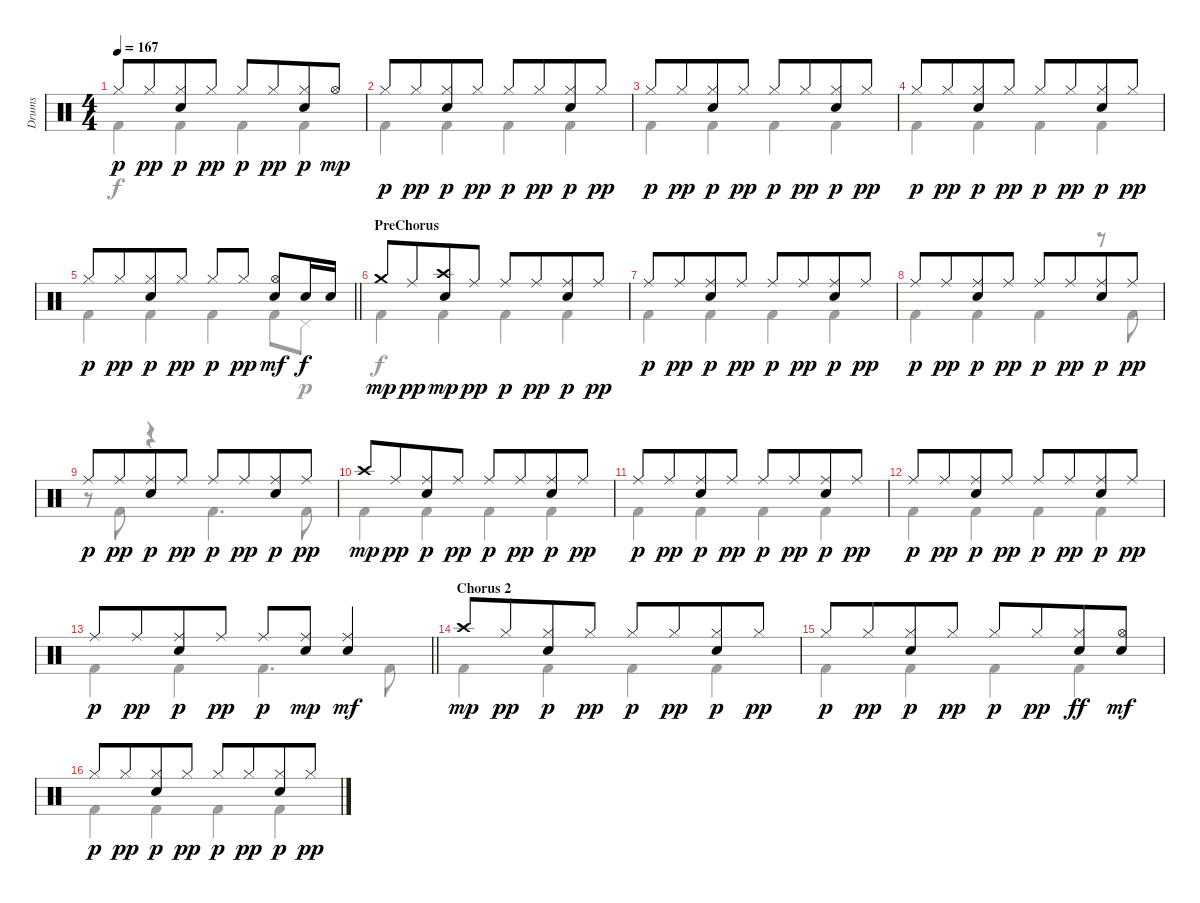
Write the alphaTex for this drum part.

\track ("Drums" "Drums") {instrument percussion}
\staff {score}
\articulation defaults
\voice
\ts (4 4)
\tempo 167
\clef neutral
\ks aminor "Hi-Hat (closed)".8{dy p} "Hi-Hat (closed)".8{dy pp beam merge}
("Hi-Hat (closed)" "Electric Snare (hit)").8{dy p} "Hi-Hat (closed)".8{dy pp} "Hi-Hat (closed)".8{dy p} "Hi-Hat (closed)".8{dy pp beam merge} ("Hi-Hat (closed)" "Electric Snare (hit)").8{dy p} "Hi-Hat (open)".8{dy mp} |
"Hi-Hat (closed)".8{dy p} "Hi-Hat (closed)".8{dy pp beam merge} ("Hi-Hat (closed)" "Electric Snare (hit)").8{dy p} "Hi-Hat (closed)".8{dy pp} "Hi-Hat (closed)".8{dy p} "Hi-Hat (closed)".8{dy pp beam merge} ("Hi-Hat (closed)" "Electric Snare (hit)").8{dy p} "Hi-Hat (closed)".8{dy pp} |
"Hi-Hat (closed)".8{dy p} "Hi-Hat (closed)".8{dy pp beam merge} ("Hi-Hat (closed)" "Electric Snare (hit)").8{dy p} "Hi-Hat (closed)".8{dy pp} "Hi-Hat (closed)".8{dy p} "Hi-Hat (closed)".8{dy pp beam merge} ("Hi-Hat (closed)" "Electric Snare (hit)").8{dy p} "Hi-Hat (closed)".8{dy pp} |
"Hi-Hat (closed)".8{dy p} "Hi-Hat (closed)".8{dy pp beam merge} ("Hi-Hat (closed)" "Electric Snare (hit)").8{dy p} "Hi-Hat (closed)".8{dy pp} "Hi-Hat (closed)".8{dy p} "Hi-Hat (closed)".8{dy pp beam merge} ("Hi-Hat (closed)" "Electric Snare (hit)").8{dy p} "Hi-Hat (closed)".8{dy pp} |
\barLineRight lightlight "Hi-Hat (closed)".8{dy p} "Hi-Hat (closed)".8{dy pp beam merge}
("Hi-Hat (closed)" "Electric Snare (hit)").8{dy p} "Hi-Hat (closed)".8{dy pp} "Hi-Hat (closed)".8{dy p} "Hi-Hat (closed)".8{dy pp} ("Hi-Hat (open)" "Electric Snare (hit)").8{dy mf} "Electric Snare (hit)".16{dy f} "Electric Snare (hit)".16 |
\section ("" "PreChorus")
"Crash medium (hit)".8{dy mp} "Ride (middle)".8{dy pp beam merge} ("Electric Snare (hit)" "Crash high (hit)").8{dy mp} "Ride (middle)".8{dy pp} "Ride (middle)".8{dy p} "Ride (middle)".8{dy pp beam merge} ("Ride (middle)" "Electric Snare (hit)").8{dy p} "Ride (middle)".8{dy pp} |
"Ride (middle)".8{dy p} "Ride (middle)".8{dy pp beam merge} ("Ride (middle)" "Electric Snare (hit)").8{dy p} "Ride (middle)".8{dy pp} "Ride (middle)".8{dy p} "Ride (middle)".8{dy pp beam merge} ("Ride (middle)" "Electric Snare (hit)").8{dy p} "Ride (middle)".8{dy pp} |
"Ride (middle)".8{dy p} "Ride (middle)".8{dy pp beam merge} ("Ride (middle)" "Electric Snare (hit)").8{dy p} "Ride (middle)".8{dy pp} "Ride (middle)".8{dy p} "Ride (middle)".8{dy pp beam merge} ("Ride (middle)" "Electric Snare (hit)").8{dy p} "Ride (middle)".8{dy pp} |
"Ride (middle)".8{dy p} "Ride (middle)".8{dy pp beam merge} ("Ride (middle)" "Electric Snare (hit)").8{dy p} "Ride (middle)".8{dy pp} "Ride (middle)".8{dy p} "Ride (middle)".8{dy pp beam merge} ("Ride (middle)" "Electric Snare (hit)").8{dy p} "Ride (middle)".8{dy pp} |
"Crash high (hit)".8{dy mp} "Ride (middle)".8{dy pp beam merge} ("Ride (middle)" "Electric Snare (hit)").8{dy p} "Ride (middle)".8{dy pp} "Ride (middle)".8{dy p} "Ride (middle)".8{dy pp beam merge} ("Ride (middle)" "Electric Snare (hit)").8{dy p} "Ride (middle)".8{dy pp} |
"Ride (middle)".8{dy p} "Ride (middle)".8{dy pp beam merge} ("Ride (middle)" "Electric Snare (hit)").8{dy p} "Ride (middle)".8{dy pp} "Ride (middle)".8{dy p} "Ride (middle)".8{dy pp beam merge} ("Ride (middle)" "Electric Snare (hit)").8{dy p} "Ride (middle)".8{dy pp} |
"Ride (middle)".8{dy p} "Ride (middle)".8{dy pp beam merge} ("Ride (middle)" "Electric Snare (hit)").8{dy p} "Ride (middle)".8{dy pp} "Ride (middle)".8{dy p} "Ride (middle)".8{dy pp beam merge} ("Ride (middle)" "Electric Snare (hit)").8{dy p} "Ride (middle)".8{dy pp} |
\barLineRight lightlight "Ride (middle)".8{dy p} "Ride (middle)".8{dy pp beam merge}
("Ride (middle)" "Electric Snare (hit)").8{dy p} "Ride (middle)".8{dy pp} "Ride (middle)".8{dy p} ("Ride (middle)" "Electric Snare (hit)").8{dy mp} ("Electric Snare (hit)" "Ride (middle)").4{dy mf} |
\section ("" "Chorus 2")
"Crash high (hit)".8{dy mp} "Hi-Hat (closed)".8{dy pp beam merge} ("Hi-Hat (closed)" "Electric Snare (hit)").8{dy p} "Hi-Hat (closed)".8{dy pp} "Hi-Hat (closed)".8{dy p} "Hi-Hat (closed)".8{dy pp beam merge} ("Hi-Hat (closed)" "Electric Snare (hit)").8{dy p} "Hi-Hat (closed)".8{dy pp} |
"Hi-Hat (closed)".8{dy p} "Hi-Hat (closed)".8{dy pp beam merge} ("Hi-Hat (closed)" "Electric Snare (hit)").8{dy p} "Hi-Hat (closed)".8{dy pp} "Hi-Hat (closed)".8{dy p} "Hi-Hat (closed)".8{dy pp beam merge} ("Hi-Hat (closed)" "Electric Snare (hit)").8{dy ff} ("Hi-Hat (open)" "Electric Snare (hit)").8{dy mf} |
"Hi-Hat (closed)".8{dy p} "Hi-Hat (closed)".8{dy pp beam merge} ("Hi-Hat (closed)" "Electric Snare (hit)").8{dy p} "Hi-Hat (closed)".8{dy pp} "Hi-Hat (closed)".8{dy p} "Hi-Hat (closed)".8{dy pp beam merge} ("Hi-Hat (closed)" "Electric Snare (hit)").8{dy p} "Hi-Hat (closed)".8{dy pp}
\voice
\clef neutral
\ottava regular
\simile none
\ks aminor "Kick (hit) 2".4{dy f} "Kick (hit) 2".4 "Kick (hit) 2".4 "Kick (hit) 2".4
|
"Kick (hit) 2".4 "Kick (hit) 2".4 "Kick (hit) 2".4 "Kick (hit) 2".4 |
"Kick (hit) 2".4 "Kick (hit) 2".4 "Kick (hit) 2".4 "Kick (hit) 2".4 |
"Kick (hit) 2".4 "Kick (hit) 2".4 "Kick (hit) 2".4 "Kick (hit) 2".4 |
\barLineRight lightlight "Kick (hit) 2".4 "Kick (hit) 2".4 "Kick (hit) 2".4 "Kick (hit) 2".8 "Pedal Hi-Hat (hit)".8{dy p}
|
"Kick (hit) 2".4{dy f} "Kick (hit) 2".4 "Kick (hit) 2".4 "Kick (hit) 2".4 |
"Kick (hit) 2".4 "Kick (hit) 2".4 "Kick (hit) 2".4 "Kick (hit) 2".4 |
"Kick (hit) 2".4 "Kick (hit) 2".4 "Kick (hit) 2".4 r.8 "Kick (hit) 2".8 |
r.8 "Kick (hit) 2".8 r.4 "Kick (hit) 2".4{d} "Kick (hit) 2".8 |
"Kick (hit) 2".4 "Kick (hit) 2".4 "Kick (hit) 2".4 "Kick (hit) 2".4 |
"Kick (hit) 2".4 "Kick (hit) 2".4 "Kick (hit) 2".4 "Kick (hit) 2".4 |
"Kick (hit) 2".4 "Kick (hit) 2".4 "Kick (hit) 2".4 "Kick (hit) 2".4 |
\barLineRight lightlight "Kick (hit) 2".4 "Kick (hit) 2".4 "Kick (hit) 2".4{d} "Kick (hit) 2".8
|
"Kick (hit) 2".4 "Kick (hit) 2".4 "Kick (hit) 2".4 "Kick (hit) 2".4 |
"Kick (hit) 2".4 "Kick (hit) 2".4 "Kick (hit) 2".4 "Kick (hit) 2".4 |
"Kick (hit) 2".4 "Kick (hit) 2".4 "Kick (hit) 2".4 "Kick (hit) 2".4
